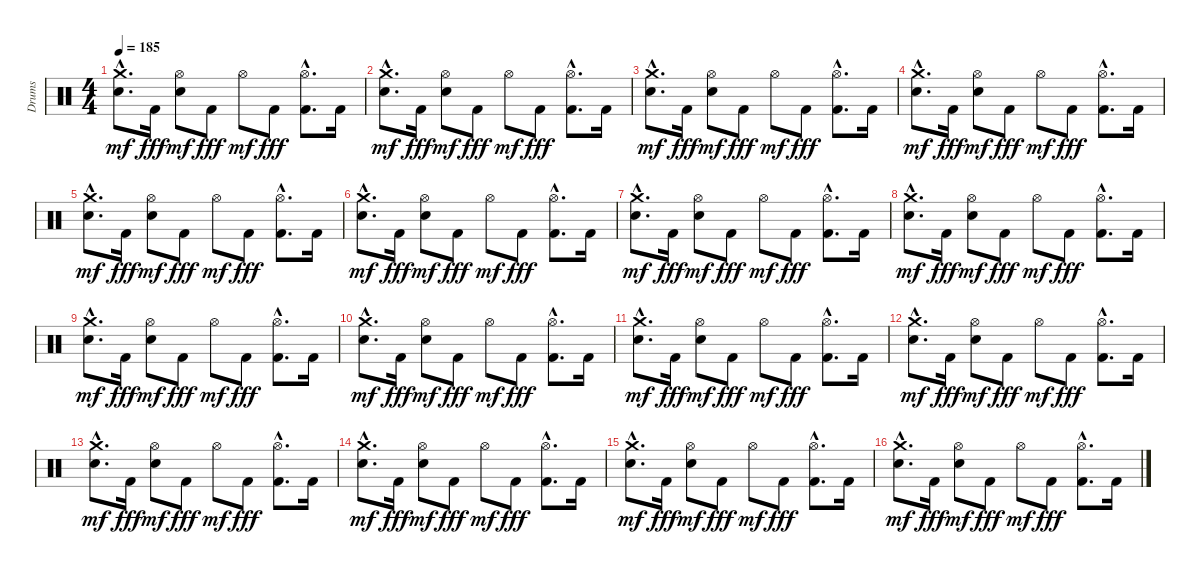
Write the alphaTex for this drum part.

\track ("Drums" "Drums") {instrument percussion}
\staff {score}
\articulation defaults
\ts (4 4)
\tempo 185
\clef neutral
\ks c
("Crash medium (hit)"{hac} "Electric Snare (hit)"{hac}).8{d dy mf} "Kick (hit) 2".16{dy fff} ("Hi-Hat (open)" "Electric Snare (hit)").8{dy mf} "Kick (hit) 2".8{dy fff} "Hi-Hat (open)".8{dy mf} "Kick (hit) 2".8{dy fff} ("Hi-Hat (open)"{hac} "Kick (hit) 2"{hac}).8{d} "Kick (hit) 2".16 |
("Crash medium (hit)"{hac} "Electric Snare (hit)"{hac}).8{d dy mf} "Kick (hit) 2".16{dy fff} ("Hi-Hat (open)" "Electric Snare (hit)").8{dy mf} "Kick (hit) 2".8{dy fff} "Hi-Hat (open)".8{dy mf} "Kick (hit) 2".8{dy fff} ("Hi-Hat (open)"{hac} "Kick (hit) 2"{hac}).8{d} "Kick (hit) 2".16 |
("Crash medium (hit)"{hac} "Electric Snare (hit)"{hac}).8{d dy mf} "Kick (hit) 2".16{dy fff} ("Hi-Hat (open)" "Electric Snare (hit)").8{dy mf} "Kick (hit) 2".8{dy fff} "Hi-Hat (open)".8{dy mf} "Kick (hit) 2".8{dy fff} ("Hi-Hat (open)"{hac} "Kick (hit) 2"{hac}).8{d} "Kick (hit) 2".16 |
("Crash medium (hit)"{hac} "Electric Snare (hit)"{hac}).8{d dy mf} "Kick (hit) 2".16{dy fff} ("Hi-Hat (open)" "Electric Snare (hit)").8{dy mf} "Kick (hit) 2".8{dy fff} "Hi-Hat (open)".8{dy mf} "Kick (hit) 2".8{dy fff} ("Hi-Hat (open)"{hac} "Kick (hit) 2"{hac}).8{d} "Kick (hit) 2".16 |
("Crash medium (hit)"{hac} "Electric Snare (hit)"{hac}).8{d dy mf} "Kick (hit) 2".16{dy fff} ("Hi-Hat (open)" "Electric Snare (hit)").8{dy mf} "Kick (hit) 2".8{dy fff} "Hi-Hat (open)".8{dy mf} "Kick (hit) 2".8{dy fff} ("Hi-Hat (open)"{hac} "Kick (hit) 2"{hac}).8{d} "Kick (hit) 2".16 |
("Crash medium (hit)"{hac} "Electric Snare (hit)"{hac}).8{d dy mf} "Kick (hit) 2".16{dy fff} ("Hi-Hat (open)" "Electric Snare (hit)").8{dy mf} "Kick (hit) 2".8{dy fff} "Hi-Hat (open)".8{dy mf} "Kick (hit) 2".8{dy fff} ("Hi-Hat (open)"{hac} "Kick (hit) 2"{hac}).8{d} "Kick (hit) 2".16 |
("Crash medium (hit)"{hac} "Electric Snare (hit)"{hac}).8{d dy mf} "Kick (hit) 2".16{dy fff} ("Hi-Hat (open)" "Electric Snare (hit)").8{dy mf} "Kick (hit) 2".8{dy fff} "Hi-Hat (open)".8{dy mf} "Kick (hit) 2".8{dy fff} ("Hi-Hat (open)"{hac} "Kick (hit) 2"{hac}).8{d} "Kick (hit) 2".16 |
("Crash medium (hit)"{hac} "Electric Snare (hit)"{hac}).8{d dy mf} "Kick (hit) 2".16{dy fff} ("Hi-Hat (open)" "Electric Snare (hit)").8{dy mf} "Kick (hit) 2".8{dy fff} "Hi-Hat (open)".8{dy mf} "Kick (hit) 2".8{dy fff} ("Hi-Hat (open)"{hac} "Kick (hit) 2"{hac}).8{d} "Kick (hit) 2".16 |
("Crash medium (hit)"{hac} "Electric Snare (hit)"{hac}).8{d dy mf} "Kick (hit) 2".16{dy fff} ("Hi-Hat (open)" "Electric Snare (hit)").8{dy mf} "Kick (hit) 2".8{dy fff} "Hi-Hat (open)".8{dy mf} "Kick (hit) 2".8{dy fff} ("Hi-Hat (open)"{hac} "Kick (hit) 2"{hac}).8{d} "Kick (hit) 2".16 |
("Crash medium (hit)"{hac} "Electric Snare (hit)"{hac}).8{d dy mf} "Kick (hit) 2".16{dy fff} ("Hi-Hat (open)" "Electric Snare (hit)").8{dy mf} "Kick (hit) 2".8{dy fff} "Hi-Hat (open)".8{dy mf} "Kick (hit) 2".8{dy fff} ("Hi-Hat (open)"{hac} "Kick (hit) 2"{hac}).8{d} "Kick (hit) 2".16 |
("Crash medium (hit)"{hac} "Electric Snare (hit)"{hac}).8{d dy mf} "Kick (hit) 2".16{dy fff} ("Hi-Hat (open)" "Electric Snare (hit)").8{dy mf} "Kick (hit) 2".8{dy fff} "Hi-Hat (open)".8{dy mf} "Kick (hit) 2".8{dy fff} ("Hi-Hat (open)"{hac} "Kick (hit) 2"{hac}).8{d} "Kick (hit) 2".16 |
("Crash medium (hit)"{hac} "Electric Snare (hit)"{hac}).8{d dy mf} "Kick (hit) 2".16{dy fff} ("Hi-Hat (open)" "Electric Snare (hit)").8{dy mf} "Kick (hit) 2".8{dy fff} "Hi-Hat (open)".8{dy mf} "Kick (hit) 2".8{dy fff} ("Hi-Hat (open)"{hac} "Kick (hit) 2"{hac}).8{d} "Kick (hit) 2".16 |
("Crash medium (hit)"{hac} "Electric Snare (hit)"{hac}).8{d dy mf} "Kick (hit) 2".16{dy fff} ("Hi-Hat (open)" "Electric Snare (hit)").8{dy mf} "Kick (hit) 2".8{dy fff} "Hi-Hat (open)".8{dy mf} "Kick (hit) 2".8{dy fff} ("Hi-Hat (open)"{hac} "Kick (hit) 2"{hac}).8{d} "Kick (hit) 2".16 |
("Crash medium (hit)"{hac} "Electric Snare (hit)"{hac}).8{d dy mf} "Kick (hit) 2".16{dy fff} ("Hi-Hat (open)" "Electric Snare (hit)").8{dy mf} "Kick (hit) 2".8{dy fff} "Hi-Hat (open)".8{dy mf} "Kick (hit) 2".8{dy fff} ("Hi-Hat (open)"{hac} "Kick (hit) 2"{hac}).8{d} "Kick (hit) 2".16 |
("Crash medium (hit)"{hac} "Electric Snare (hit)"{hac}).8{d dy mf} "Kick (hit) 2".16{dy fff} ("Hi-Hat (open)" "Electric Snare (hit)").8{dy mf} "Kick (hit) 2".8{dy fff} "Hi-Hat (open)".8{dy mf} "Kick (hit) 2".8{dy fff} ("Hi-Hat (open)"{hac} "Kick (hit) 2"{hac}).8{d} "Kick (hit) 2".16 |
("Crash medium (hit)"{hac} "Electric Snare (hit)"{hac}).8{d dy mf} "Kick (hit) 2".16{dy fff} ("Hi-Hat (open)" "Electric Snare (hit)").8{dy mf} "Kick (hit) 2".8{dy fff} "Hi-Hat (open)".8{dy mf} "Kick (hit) 2".8{dy fff} ("Hi-Hat (open)"{hac} "Kick (hit) 2"{hac}).8{d} "Kick (hit) 2".16
